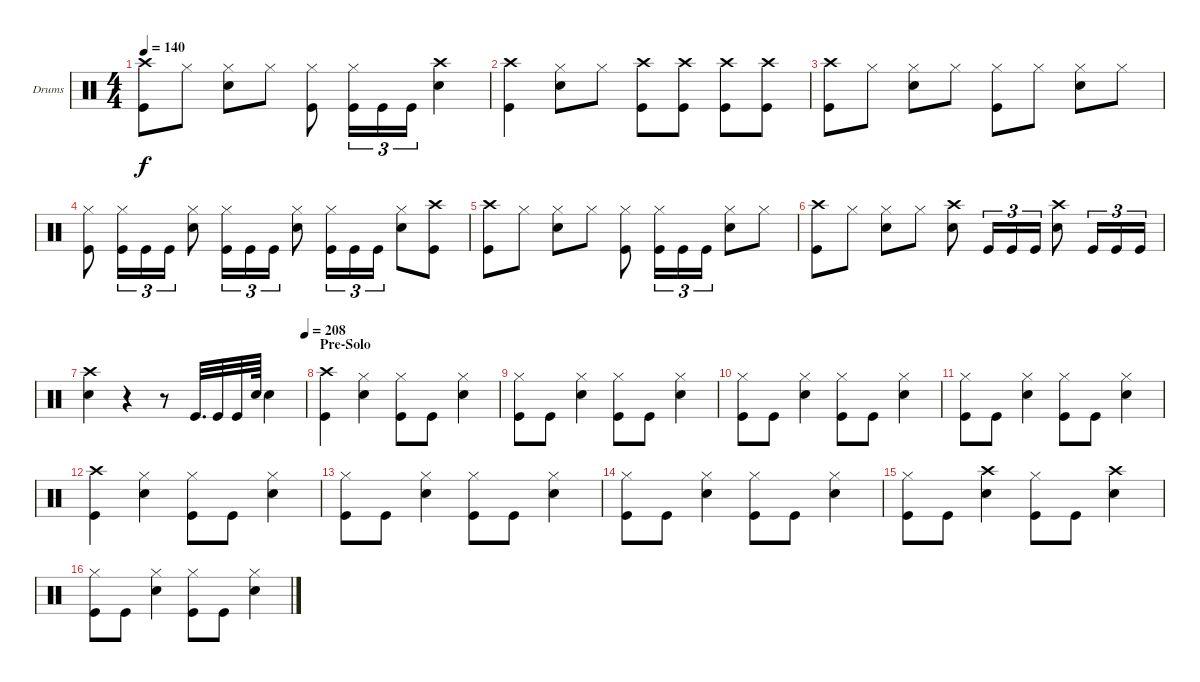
\defaultSystemsLayout 4
\bracketExtendMode groupsimilarinstruments
\firstSystemTrackNameOrientation horizontal
\otherSystemsTrackNameOrientation horizontal
\track ("Drums" "Drums") {instrument percussion}
\staff {score}
\articulation defaults
\ts (4 4)
\tempo 140
\clef neutral
\ks c
("Crash high (hit)" "Kick (hit)").8{dy f} "Hi-Hat (closed)".8 ("Snare (hit) 2" "Hi-Hat (closed)").8 "Hi-Hat (closed)".8 ("Hi-Hat (closed)" "Kick (hit)").8 ("Hi-Hat (closed)" "Kick (hit)").16{tu (3 2)} "Kick (hit)".16{tu (3 2)} "Kick (hit)".16{tu (3 2)} ("Snare (hit) 2" "Crash high (hit)").4 |
("Kick (hit)" "Crash high (hit)").4 ("Snare (hit) 2" "Hi-Hat (closed)").8 "Hi-Hat (closed)".8 ("Kick (hit)" "Crash high (hit)").8 ("Kick (hit)" "Crash high (hit)").8 ("Kick (hit)" "Crash high (hit)").8 ("Kick (hit)" "Crash high (hit)").8 |
("Crash high (hit)" "Kick (hit)").8 "Hi-Hat (closed)".8 ("Snare (hit) 2" "Hi-Hat (closed)").8 "Hi-Hat (closed)".8 ("Hi-Hat (closed)" "Kick (hit)").8 "Hi-Hat (closed)".8 ("Snare (hit) 2" "Hi-Hat (closed)").8 "Hi-Hat (closed)".8 |
("Kick (hit)" "Hi-Hat (closed)").8 ("Kick (hit)" "Hi-Hat (closed)").16{tu (3 2)} "Kick (hit)".16{tu (3 2)} "Kick (hit)".16{tu (3 2)} ("Snare (hit) 2" "Hi-Hat (closed)").8 ("Kick (hit)" "Hi-Hat (closed)").16{tu (3 2)} "Kick (hit)".16{tu (3 2)} "Kick (hit)".16{tu (3 2)} ("Snare (hit) 2" "Hi-Hat (closed)").8 ("Kick (hit)" "Hi-Hat (closed)").16{tu (3 2)} "Kick (hit)".16{tu (3 2)} "Kick (hit)".16{tu (3 2)} ("Snare (hit) 2" "Hi-Hat (closed)").8 ("Crash high (hit)" "Kick (hit)").8 |
("Kick (hit)" "Crash high (hit)").8 "Hi-Hat (closed)".8 ("Snare (hit) 2" "Hi-Hat (closed)").8 "Hi-Hat (closed)".8 ("Kick (hit)" "Hi-Hat (closed)").8 ("Kick (hit)" "Hi-Hat (closed)").16{tu (3 2)} "Kick (hit)".16{tu (3 2)} "Kick (hit)".16{tu (3 2)} ("Snare (hit) 2" "Hi-Hat (closed)").8 "Hi-Hat (closed)".8 |
("Crash high (hit)" "Kick (hit)").8 "Hi-Hat (closed)".8 ("Snare (hit) 2" "Hi-Hat (closed)").8 "Hi-Hat (closed)".8 ("Snare (hit) 2" "Crash high (hit)").8 "Kick (hit)".16{tu (3 2)} "Kick (hit)".16{tu (3 2)} "Kick (hit)".16{tu (3 2)} ("Snare (hit) 2" "Crash high (hit)").8 "Kick (hit)".16{tu (3 2)} "Kick (hit)".16{tu (3 2)} "Kick (hit)".16{tu (3 2)} |
\tempo (208 1)
("Snare (hit) 2" "Crash high (hit)").4 r.4 r.8 "Kick (hit)".32{d} "Kick (hit)".32 "Kick (hit)".32 "Snare (hit) 2".64 "Snare (hit) 2".4 |
\section ("" "Pre-Solo")
("Kick (hit)" "Crash high (hit)").4 ("Hi-Hat (closed)" "Snare (hit) 2").4 ("Kick (hit)" "Hi-Hat (closed)").8 "Kick (hit)".8 ("Snare (hit) 2" "Hi-Hat (closed)").4 |
("Kick (hit)" "Hi-Hat (closed)").8 "Kick (hit)".8 ("Snare (hit) 2" "Hi-Hat (closed)").4 ("Kick (hit)" "Hi-Hat (closed)").8 "Kick (hit)".8 ("Snare (hit) 2" "Hi-Hat (closed)").4 |
("Kick (hit)" "Hi-Hat (closed)").8 "Kick (hit)".8 ("Snare (hit) 2" "Hi-Hat (closed)").4 ("Kick (hit)" "Hi-Hat (closed)").8 "Kick (hit)".8 ("Snare (hit) 2" "Hi-Hat (closed)").4 |
("Kick (hit)" "Hi-Hat (closed)").8 "Kick (hit)".8 ("Snare (hit) 2" "Hi-Hat (closed)").4 ("Kick (hit)" "Hi-Hat (closed)").8 "Kick (hit)".8 ("Snare (hit) 2" "Hi-Hat (closed)").4 |
("Kick (hit)" "Crash high (hit)").4 ("Hi-Hat (closed)" "Snare (hit) 2").4 ("Kick (hit)" "Hi-Hat (closed)").8 "Kick (hit)".8 ("Snare (hit) 2" "Hi-Hat (closed)").4 |
("Kick (hit)" "Hi-Hat (closed)").8 "Kick (hit)".8 ("Snare (hit) 2" "Hi-Hat (closed)").4 ("Kick (hit)" "Hi-Hat (closed)").8 "Kick (hit)".8 ("Snare (hit) 2" "Hi-Hat (closed)").4 |
("Kick (hit)" "Hi-Hat (closed)").8 "Kick (hit)".8 ("Snare (hit) 2" "Hi-Hat (closed)").4 ("Kick (hit)" "Hi-Hat (closed)").8 "Kick (hit)".8 ("Snare (hit) 2" "Hi-Hat (closed)").4 |
("Hi-Hat (closed)" "Kick (hit)").8 "Kick (hit)".8 ("Snare (hit) 2" "Crash high (hit)").4 ("Hi-Hat (closed)" "Kick (hit)").8 "Kick (hit)".8 ("Snare (hit) 2" "Crash high (hit)").4 |
("Kick (hit)" "Hi-Hat (closed)").8 "Kick (hit)".8 ("Snare (hit) 2" "Hi-Hat (closed)").4 ("Kick (hit)" "Hi-Hat (closed)").8 "Kick (hit)".8 ("Snare (hit) 2" "Hi-Hat (closed)").4
